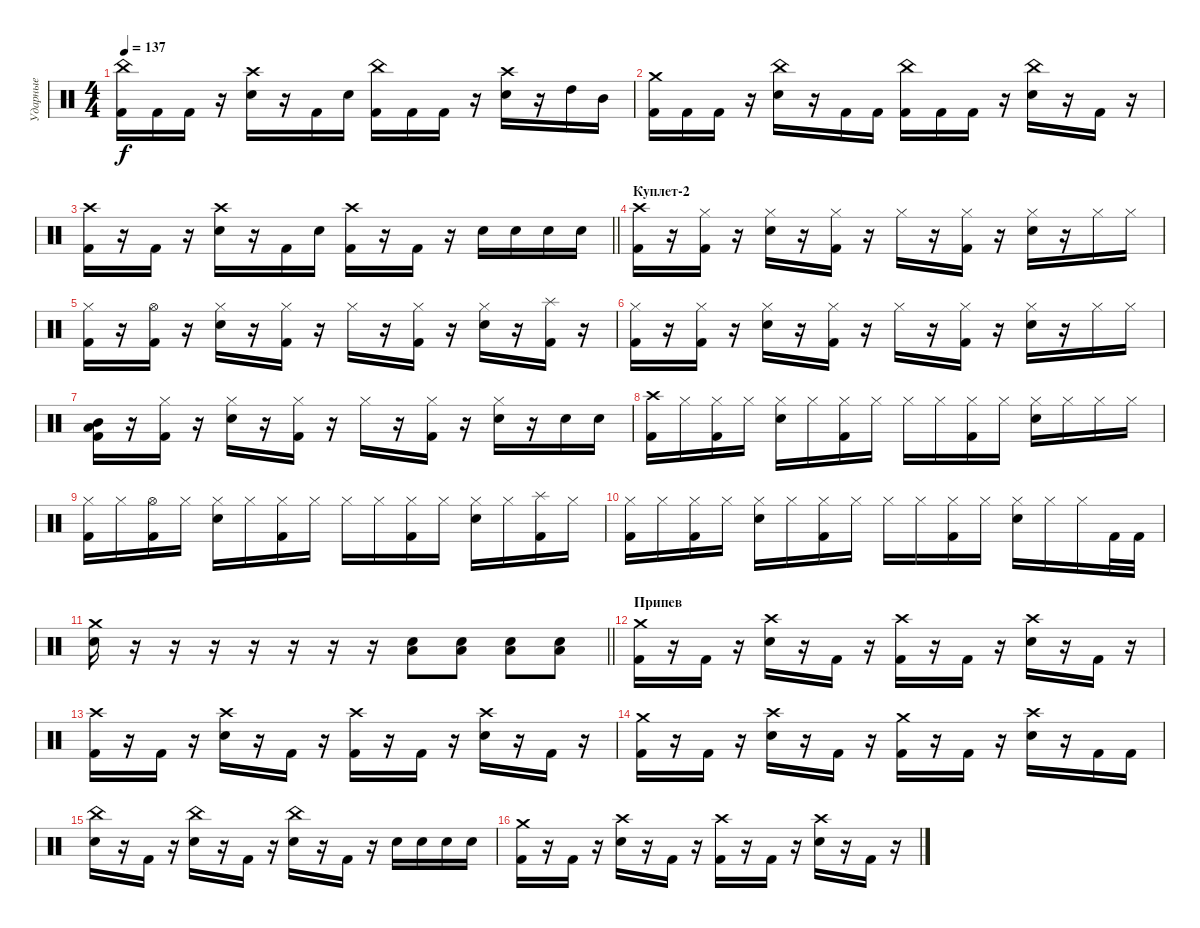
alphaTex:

\track ("Ударные" "Ударные") {instrument percussion}
\staff {score}
\articulation defaults
\ts (4 4)
\tempo 137
\clef neutral
\ks c
("Kick (hit) 2" "China (hit)").16{dy f} "Kick (hit) 2".16 "Kick (hit) 2".16 r.16 ("Snare (hit) 2" "Crash high (hit)").16 r.16 "Kick (hit) 2".16 "Snare (hit) 2".16 ("Kick (hit) 2" "China (hit)").16 "Kick (hit) 2".16 "Kick (hit) 2".16 r.16 ("Snare (hit) 2" "Crash high (hit)").16 r.16 "High Tom (hit)".16 "Mid Tom (hit)".16 |
("Kick (hit) 2" "Crash medium (hit)").16 "Kick (hit) 2".16 "Kick (hit) 2".16 r.16 ("Snare (hit) 2" "China (hit)").16 r.16 "Kick (hit) 2".16 "Kick (hit) 2".16 ("Kick (hit) 2" "China (hit)").16 "Kick (hit) 2".16 "Kick (hit) 2".16 r.16 ("Snare (hit) 2" "China (hit)").16 r.16 "Kick (hit) 2".16 r.16 |
\barLineRight lightlight
("Kick (hit) 2" "Crash high (hit)").16 r.16 "Kick (hit) 2".16 r.16 ("Snare (hit) 2" "Crash high (hit)").16 r.16 "Kick (hit) 2".16 "Snare (hit) 2".16 ("Kick (hit) 2" "Crash high (hit)").16 r.16 "Kick (hit) 2".16 r.16 "Snare (hit) 2".16 "Snare (hit) 2".16 "Snare (hit) 2".16 "Snare (hit) 2".16 |
\section ("" "Куплет-2")
("Kick (hit) 2" "Crash high (hit)").16 r.16 ("Kick (hit) 2" "Hi-Hat (closed)").16 r.16 ("Snare (hit) 2" "Hi-Hat (closed)").16 r.16 ("Kick (hit) 2" "Hi-Hat (closed)").16 r.16 "Hi-Hat (closed)".16 r.16 ("Kick (hit) 2" "Hi-Hat (closed)").16 r.16 ("Snare (hit) 2" "Hi-Hat (closed)").16 r.16 "Hi-Hat (closed)".16 "Hi-Hat (closed)".16 |
("Kick (hit) 2" "Hi-Hat (closed)").16 r.16 ("Kick (hit) 2" "Hi-Hat (open)").16 r.16 ("Snare (hit) 2" "Hi-Hat (closed)").16 r.16 ("Kick (hit) 2" "Hi-Hat (closed)").16 r.16 "Hi-Hat (closed)".16 r.16 ("Kick (hit) 2" "Hi-Hat (closed)").16 r.16 ("Snare (hit) 2" "Hi-Hat (closed)").16 r.16 ("Kick (hit) 2" "Splash (hit)").16 r.16 |
("Kick (hit) 2" "Hi-Hat (closed)").16 r.16 ("Kick (hit) 2" "Hi-Hat (closed)").16 r.16 ("Snare (hit) 2" "Hi-Hat (closed)").16 r.16 ("Kick (hit) 2" "Hi-Hat (closed)").16 r.16 "Hi-Hat (closed)".16 r.16 ("Kick (hit) 2" "Hi-Hat (closed)").16 r.16 ("Snare (hit) 2" "Hi-Hat (closed)").16 r.16 "Hi-Hat (closed)".16 "Hi-Hat (closed)".16 |
("Kick (hit) 2" "Low Tom (hit)" "Mid Tom (hit)").16 r.16 ("Kick (hit) 2" "Hi-Hat (closed)").16 r.16 ("Snare (hit) 2" "Hi-Hat (closed)").16 r.16 ("Kick (hit) 2" "Hi-Hat (closed)").16 r.16 "Hi-Hat (closed)".16 r.16 ("Kick (hit) 2" "Hi-Hat (closed)").16 r.16 ("Snare (hit) 2" "Hi-Hat (closed)").16 r.16 "Snare (hit) 2".16 "Snare (hit) 2".16 |
("Kick (hit) 2" "Crash high (hit)").16 "Hi-Hat (closed)".16 ("Kick (hit) 2" "Hi-Hat (closed)").16 "Hi-Hat (closed)".16 ("Snare (hit) 2" "Hi-Hat (closed)").16 "Hi-Hat (closed)".16 ("Kick (hit) 2" "Hi-Hat (closed)").16 "Hi-Hat (closed)".16 "Hi-Hat (closed)".16 "Hi-Hat (closed)".16 ("Kick (hit) 2" "Hi-Hat (closed)").16 "Hi-Hat (closed)".16 ("Snare (hit) 2" "Hi-Hat (closed)").16 "Hi-Hat (closed)".16 "Hi-Hat (closed)".16 "Hi-Hat (closed)".16 |
("Kick (hit) 2" "Hi-Hat (closed)").16 "Hi-Hat (closed)".16 ("Kick (hit) 2" "Hi-Hat (open)").16 "Hi-Hat (closed)".16 ("Snare (hit) 2" "Hi-Hat (closed)").16 "Hi-Hat (closed)".16 ("Kick (hit) 2" "Hi-Hat (closed)").16 "Hi-Hat (closed)".16 "Hi-Hat (closed)".16 "Hi-Hat (closed)".16 ("Kick (hit) 2" "Hi-Hat (closed)").16 "Hi-Hat (closed)".16 ("Snare (hit) 2" "Hi-Hat (closed)").16 "Hi-Hat (closed)".16 ("Kick (hit) 2" "Splash (hit)").16 "Hi-Hat (closed)".16 |
("Kick (hit) 2" "Hi-Hat (closed)").16 "Hi-Hat (closed)".16 ("Kick (hit) 2" "Hi-Hat (closed)").16 "Hi-Hat (closed)".16 ("Snare (hit) 2" "Hi-Hat (closed)").16 "Hi-Hat (closed)".16 ("Kick (hit) 2" "Hi-Hat (closed)").16 "Hi-Hat (closed)".16 "Hi-Hat (closed)".16 "Hi-Hat (closed)".16 ("Kick (hit) 2" "Hi-Hat (closed)").16 "Hi-Hat (closed)".16 ("Snare (hit) 2" "Hi-Hat (closed)").16 "Hi-Hat (closed)".16 "Hi-Hat (closed)".16 "Kick (hit) 2".32 "Kick (hit) 2".32 |
\barLineRight lightlight
("Snare (hit) 2" "Crash medium (hit)").16 r.16 r.16 r.16 r.16 r.16 r.16 r.16 ("Snare (hit) 2" "Low Tom (hit)").8 ("Snare (hit) 2" "Low Tom (hit)").8 ("Snare (hit) 2" "Low Tom (hit)").8 ("Snare (hit) 2" "Low Tom (hit)").8 |
\section ("" "Припев")
("Kick (hit) 2" "Crash medium (hit)").16 r.16 "Kick (hit) 2".16 r.16 ("Snare (hit) 2" "Crash high (hit)").16 r.16 "Kick (hit) 2".16 r.16 ("Kick (hit) 2" "Crash high (hit)").16 r.16 "Kick (hit) 2".16 r.16 ("Snare (hit) 2" "Crash high (hit)").16 r.16 "Kick (hit) 2".16 r.16 |
("Kick (hit) 2" "Crash high (hit)").16 r.16 "Kick (hit) 2".16 r.16 ("Snare (hit) 2" "Crash high (hit)").16 r.16 "Kick (hit) 2".16 r.16 ("Kick (hit) 2" "Crash high (hit)").16 r.16 "Kick (hit) 2".16 r.16 ("Snare (hit) 2" "Crash high (hit)").16 r.16 "Kick (hit) 2".16 r.16 |
("Kick (hit) 2" "Crash medium (hit)").16 r.16 "Kick (hit) 2".16 r.16 ("Snare (hit) 2" "Crash high (hit)").16 r.16 "Kick (hit) 2".16 r.16 ("Kick (hit) 2" "Crash medium (hit)").16 r.16 "Kick (hit) 2".16 r.16 ("Snare (hit) 2" "Crash high (hit)").16 r.16 "Kick (hit) 2".16 "Kick (hit) 2".16 |
("Snare (hit) 2" "China (hit)").16 r.16 "Kick (hit) 2".16 r.16 ("Snare (hit) 2" "China (hit)").16 r.16 "Kick (hit) 2".16 r.16 ("Snare (hit) 2" "China (hit)").16 r.16 "Kick (hit) 2".16 r.16 "Snare (hit) 2".16 "Snare (hit) 2".16 "Snare (hit) 2".16 "Snare (hit) 2".16 |
("Kick (hit) 2" "Crash medium (hit)").16 r.16 "Kick (hit) 2".16 r.16 ("Snare (hit) 2" "Crash high (hit)").16 r.16 "Kick (hit) 2".16 r.16 ("Kick (hit) 2" "Crash high (hit)").16 r.16 "Kick (hit) 2".16 r.16 ("Snare (hit) 2" "Crash high (hit)").16 r.16 "Kick (hit) 2".16 r.16
